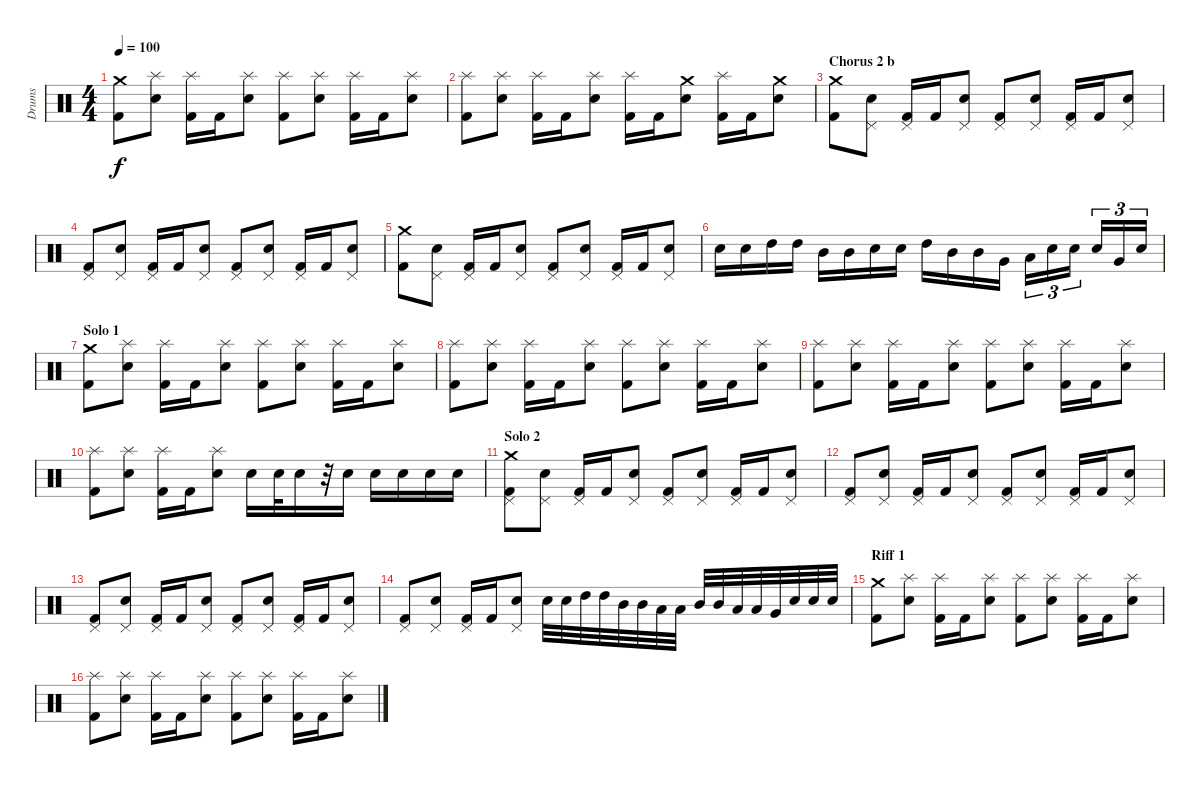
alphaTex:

\track ("Drums" "Drums") {instrument percussion}
\staff {score}
\articulation defaults
\ts (4 4)
\tempo 100
\clef neutral
\ks c
("Crash medium (hit)" "Kick (hit) 2").8{dy f} ("Splash (hit)" "Electric Snare (hit)").8 ("Splash (hit)" "Kick (hit) 2").16 "Kick (hit) 2".16 ("Splash (hit)" "Electric Snare (hit)").8 ("Splash (hit)" "Kick (hit) 2").8 ("Splash (hit)" "Electric Snare (hit)").8 ("Splash (hit)" "Kick (hit) 2").16 "Kick (hit) 2".16 ("Splash (hit)" "Electric Snare (hit)").8 |
("Splash (hit)" "Kick (hit) 2").8 ("Splash (hit)" "Electric Snare (hit)").8 ("Splash (hit)" "Kick (hit) 2").16 "Kick (hit) 2".16 ("Splash (hit)" "Electric Snare (hit)").8 ("Splash (hit)" "Kick (hit) 2").16 "Kick (hit) 2".16 ("Crash medium (hit)" "Electric Snare (hit)").8 ("Splash (hit)" "Kick (hit) 2").16 "Kick (hit) 2".16 ("Crash medium (hit)" "Electric Snare (hit)").8 |
\section ("" "Chorus 2 b")
("Crash medium (hit)" "Kick (hit) 2").8 ("Pedal Hi-Hat (hit)" "Electric Snare (hit)").8 ("Pedal Hi-Hat (hit)" "Kick (hit) 2").16 "Kick (hit) 2".16 ("Pedal Hi-Hat (hit)" "Electric Snare (hit)").8 ("Pedal Hi-Hat (hit)" "Kick (hit) 2").8 ("Pedal Hi-Hat (hit)" "Electric Snare (hit)").8 ("Pedal Hi-Hat (hit)" "Kick (hit) 2").16 "Kick (hit) 2".16 ("Pedal Hi-Hat (hit)" "Electric Snare (hit)").8 |
("Pedal Hi-Hat (hit)" "Kick (hit) 2").8 ("Pedal Hi-Hat (hit)" "Electric Snare (hit)").8 ("Pedal Hi-Hat (hit)" "Kick (hit) 2").16 "Kick (hit) 2".16 ("Pedal Hi-Hat (hit)" "Electric Snare (hit)").8 ("Pedal Hi-Hat (hit)" "Kick (hit) 2").8 ("Pedal Hi-Hat (hit)" "Electric Snare (hit)").8 ("Pedal Hi-Hat (hit)" "Kick (hit) 2").16 "Kick (hit) 2".16 ("Pedal Hi-Hat (hit)" "Electric Snare (hit)").8 |
("Crash medium (hit)" "Kick (hit) 2").8 ("Pedal Hi-Hat (hit)" "Electric Snare (hit)").8 ("Pedal Hi-Hat (hit)" "Kick (hit) 2").16 "Kick (hit) 2".16 ("Pedal Hi-Hat (hit)" "Electric Snare (hit)").8 ("Pedal Hi-Hat (hit)" "Kick (hit) 2").8 ("Pedal Hi-Hat (hit)" "Electric Snare (hit)").8 ("Pedal Hi-Hat (hit)" "Kick (hit) 2").16 "Kick (hit) 2".16 ("Pedal Hi-Hat (hit)" "Electric Snare (hit)").8 |
"Electric Snare (hit)".16 "Electric Snare (hit)".16 "High Tom (hit)".16 "High Tom (hit)".16 "Mid Tom (hit)".16 "Mid Tom (hit)".16 "Electric Snare (hit)".16 "Electric Snare (hit)".16 "High Tom (hit)".16 "Mid Tom (hit)".16 "Mid Tom (hit)".16 "Very Low Tom (hit)".16 "Low Tom (hit)".16{tu (3 2)} "Electric Snare (hit)".16{tu (3 2)} "Electric Snare (hit)".16{tu (3 2)} "Electric Snare (hit)".16{tu (3 2)} "Very Low Tom (hit)".16{tu (3 2)} "Electric Snare (hit)".16{tu (3 2)} |
\section ("" "Solo 1")
("Crash medium (hit)" "Kick (hit) 2").8 ("Splash (hit)" "Electric Snare (hit)").8 ("Splash (hit)" "Kick (hit) 2").16 "Kick (hit) 2".16 ("Splash (hit)" "Electric Snare (hit)").8 ("Splash (hit)" "Kick (hit) 2").8 ("Splash (hit)" "Electric Snare (hit)").8 ("Splash (hit)" "Kick (hit) 2").16 "Kick (hit) 2".16 ("Splash (hit)" "Electric Snare (hit)").8 |
("Splash (hit)" "Kick (hit) 2").8 ("Splash (hit)" "Electric Snare (hit)").8 ("Splash (hit)" "Kick (hit) 2").16 "Kick (hit) 2".16 ("Splash (hit)" "Electric Snare (hit)").8 ("Splash (hit)" "Kick (hit) 2").8 ("Splash (hit)" "Electric Snare (hit)").8 ("Splash (hit)" "Kick (hit) 2").16 "Kick (hit) 2".16 ("Splash (hit)" "Electric Snare (hit)").8 |
("Splash (hit)" "Kick (hit) 2").8 ("Splash (hit)" "Electric Snare (hit)").8 ("Splash (hit)" "Kick (hit) 2").16 "Kick (hit) 2".16 ("Splash (hit)" "Electric Snare (hit)").8 ("Splash (hit)" "Kick (hit) 2").8 ("Splash (hit)" "Electric Snare (hit)").8 ("Splash (hit)" "Kick (hit) 2").16 "Kick (hit) 2".16 ("Splash (hit)" "Electric Snare (hit)").8 |
("Splash (hit)" "Kick (hit) 2").8 ("Splash (hit)" "Electric Snare (hit)").8 ("Splash (hit)" "Kick (hit) 2").16 "Kick (hit) 2".16 ("Splash (hit)" "Electric Snare (hit)").8 "Electric Snare (hit)".16 "Electric Snare (hit)".32 "Electric Snare (hit)".16 r.32 "Electric Snare (hit)".16 "Electric Snare (hit)".16 "Electric Snare (hit)".16 "Electric Snare (hit)".16 "Electric Snare (hit)".16 |
\section ("" "Solo 2")
("Pedal Hi-Hat (hit)" "Crash medium (hit)" "Kick (hit) 2").8 ("Pedal Hi-Hat (hit)" "Electric Snare (hit)").8 ("Pedal Hi-Hat (hit)" "Kick (hit) 2").16 "Kick (hit) 2".16 ("Pedal Hi-Hat (hit)" "Electric Snare (hit)").8 ("Pedal Hi-Hat (hit)" "Kick (hit) 2").8 ("Pedal Hi-Hat (hit)" "Electric Snare (hit)").8 ("Pedal Hi-Hat (hit)" "Kick (hit) 2").16 "Kick (hit) 2".16 ("Pedal Hi-Hat (hit)" "Electric Snare (hit)").8 |
("Pedal Hi-Hat (hit)" "Kick (hit) 2").8 ("Pedal Hi-Hat (hit)" "Electric Snare (hit)").8 ("Pedal Hi-Hat (hit)" "Kick (hit) 2").16 "Kick (hit) 2".16 ("Pedal Hi-Hat (hit)" "Electric Snare (hit)").8 ("Pedal Hi-Hat (hit)" "Kick (hit) 2").8 ("Pedal Hi-Hat (hit)" "Electric Snare (hit)").8 ("Pedal Hi-Hat (hit)" "Kick (hit) 2").16 "Kick (hit) 2".16 ("Pedal Hi-Hat (hit)" "Electric Snare (hit)").8 |
("Pedal Hi-Hat (hit)" "Kick (hit) 2").8 ("Pedal Hi-Hat (hit)" "Electric Snare (hit)").8 ("Pedal Hi-Hat (hit)" "Kick (hit) 2").16 "Kick (hit) 2".16 ("Pedal Hi-Hat (hit)" "Electric Snare (hit)").8 ("Pedal Hi-Hat (hit)" "Kick (hit) 2").8 ("Pedal Hi-Hat (hit)" "Electric Snare (hit)").8 ("Pedal Hi-Hat (hit)" "Kick (hit) 2").16 "Kick (hit) 2".16 ("Pedal Hi-Hat (hit)" "Electric Snare (hit)").8 |
("Pedal Hi-Hat (hit)" "Kick (hit) 2").8 ("Pedal Hi-Hat (hit)" "Electric Snare (hit)").8 ("Pedal Hi-Hat (hit)" "Kick (hit) 2").16 "Kick (hit) 2".16 ("Pedal Hi-Hat (hit)" "Electric Snare (hit)").8 "Electric Snare (hit)".32 "Electric Snare (hit)".32 "High Tom (hit)".32 "High Tom (hit)".32 "Mid Tom (hit)".32 "Mid Tom (hit)".32 "Low Tom (hit)".32 "Low Tom (hit)".32 "Mid Tom (hit)".32 "Mid Tom (hit)".32 "Low Tom (hit)".32 "Low Tom (hit)".32 "Very Low Tom (hit)".32 "Electric Snare (hit)".32 "Electric Snare (hit)".32 "Electric Snare (hit)".32 |
\section ("" "Riff 1")
("Crash medium (hit)" "Kick (hit) 2").8 ("Splash (hit)" "Electric Snare (hit)").8 ("Splash (hit)" "Kick (hit) 2").16 "Kick (hit) 2".16 ("Splash (hit)" "Electric Snare (hit)").8 ("Splash (hit)" "Kick (hit) 2").8 ("Splash (hit)" "Electric Snare (hit)").8 ("Splash (hit)" "Kick (hit) 2").16 "Kick (hit) 2".16 ("Splash (hit)" "Electric Snare (hit)").8 |
("Splash (hit)" "Kick (hit) 2").8 ("Splash (hit)" "Electric Snare (hit)").8 ("Splash (hit)" "Kick (hit) 2").16 "Kick (hit) 2".16 ("Splash (hit)" "Electric Snare (hit)").8 ("Splash (hit)" "Kick (hit) 2").8 ("Splash (hit)" "Electric Snare (hit)").8 ("Splash (hit)" "Kick (hit) 2").16 "Kick (hit) 2".16 ("Splash (hit)" "Electric Snare (hit)").8
